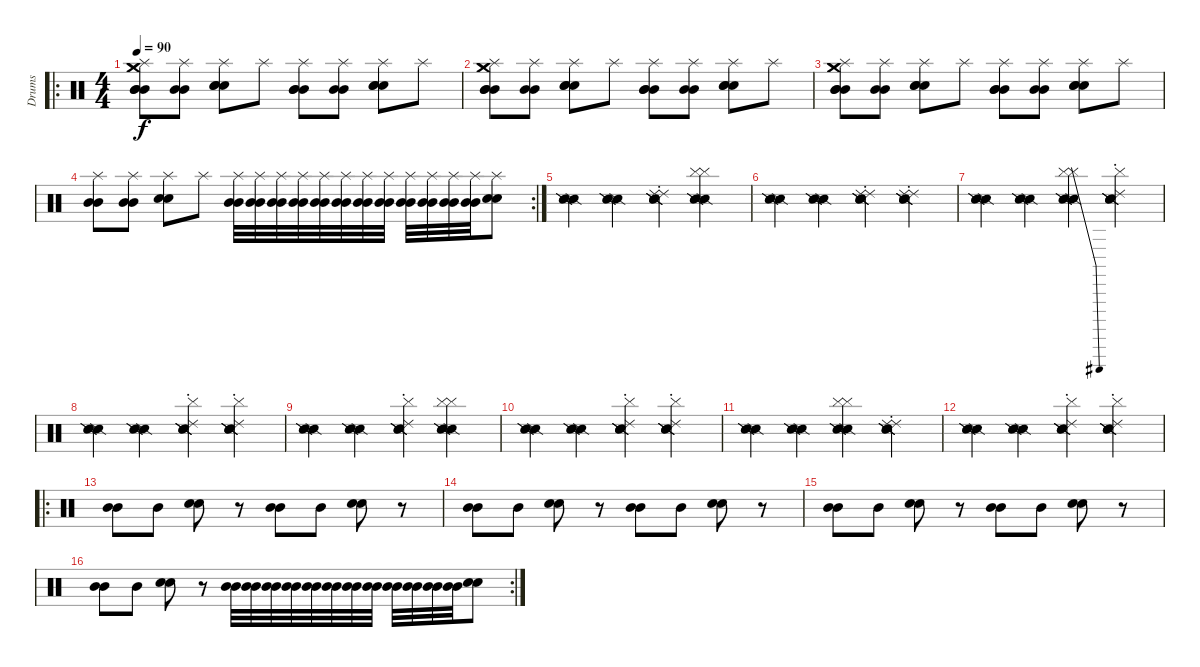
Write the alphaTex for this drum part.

\track ("Drums" "Drums") {instrument percussion}
\staff {score}
\articulation defaults
\ro
\ts (4 4)
\tempo 90
\clef neutral
\ks c
("Mid Tom (hit)" "Mid Tom (hit)" "Mid Tom (hit)" "Crash medium (hit)" "Crash medium (hit)" "Splash (hit)").8{dy f} ("Mid Tom (hit)" "Mid Tom (hit)" "Splash (hit)").8 ("Electric Snare (hit)" "Electric Snare (hit)" "Electric Snare (hit)" "Splash (hit)").8 "Splash (hit)".8 ("Mid Tom (hit)" "Mid Tom (hit)" "Mid Tom (hit)" "Splash (hit)").8 ("Mid Tom (hit)" "Mid Tom (hit)" "Splash (hit)").8 ("Electric Snare (hit)" "Electric Snare (hit)" "Electric Snare (hit)" "Splash (hit)").8 "Splash (hit)".8 |
("Mid Tom (hit)" "Mid Tom (hit)" "Mid Tom (hit)" "Crash medium (hit)" "Crash medium (hit)" "Splash (hit)").8 ("Mid Tom (hit)" "Mid Tom (hit)" "Splash (hit)").8 ("Electric Snare (hit)" "Electric Snare (hit)" "Electric Snare (hit)" "Splash (hit)").8 "Splash (hit)".8 ("Mid Tom (hit)" "Mid Tom (hit)" "Mid Tom (hit)" "Splash (hit)").8 ("Mid Tom (hit)" "Mid Tom (hit)" "Splash (hit)").8 ("Electric Snare (hit)" "Electric Snare (hit)" "Electric Snare (hit)" "Splash (hit)").8 "Splash (hit)".8 |
("Mid Tom (hit)" "Mid Tom (hit)" "Mid Tom (hit)" "Crash medium (hit)" "Crash medium (hit)" "Splash (hit)").8 ("Mid Tom (hit)" "Mid Tom (hit)" "Splash (hit)").8 ("Electric Snare (hit)" "Electric Snare (hit)" "Electric Snare (hit)" "Splash (hit)").8 "Splash (hit)".8 ("Mid Tom (hit)" "Mid Tom (hit)" "Mid Tom (hit)" "Splash (hit)").8 ("Mid Tom (hit)" "Mid Tom (hit)" "Splash (hit)").8 ("Electric Snare (hit)" "Electric Snare (hit)" "Electric Snare (hit)" "Splash (hit)").8 "Splash (hit)".8 |
\rc 2
("Mid Tom (hit)" "Mid Tom (hit)" "Splash (hit)").8 ("Mid Tom (hit)" "Mid Tom (hit)" "Splash (hit)").8 ("Electric Snare (hit)" "Electric Snare (hit)" "Splash (hit)").8 "Splash (hit)".8 ("Mid Tom (hit)" "Mid Tom (hit)" "Splash (hit)").32 ("Mid Tom (hit)" "Mid Tom (hit)" "Splash (hit)").32 ("Mid Tom (hit)" "Mid Tom (hit)" "Splash (hit)").32 ("Mid Tom (hit)" "Mid Tom (hit)" "Splash (hit)").32 ("Mid Tom (hit)" "Mid Tom (hit)" "Splash (hit)").32 ("Mid Tom (hit)" "Mid Tom (hit)" "Splash (hit)").32 ("Mid Tom (hit)" "Mid Tom (hit)" "Splash (hit)").32 ("Mid Tom (hit)" "Mid Tom (hit)" "Splash (hit)").32 ("Mid Tom (hit)" "Mid Tom (hit)" "Splash (hit)").32 ("Mid Tom (hit)" "Mid Tom (hit)" "Splash (hit)").32 ("Mid Tom (hit)" "Mid Tom (hit)" "Splash (hit)").32 ("Mid Tom (hit)" "Mid Tom (hit)" "Splash (hit)").32 ("Electric Snare (hit)" "Electric Snare (hit)" "Splash (hit)").8 |
("Snare (side stick) 2" "Snare (side stick) 2" "Snare (side stick) 2").4 ("Snare (side stick) 2" "Snare (side stick) 2" "Snare (side stick) 2").4 ("Snare (side stick) 2" "Snare (side stick) 2" "Snare (side stick) 2" "Ride (choke) 2" "Ride (choke) 2").4 ("Snare (side stick) 2" "Snare (side stick) 2" "Snare (side stick) 2" "Cymbal (hit)" "Cymbal (hit)").4 |
("Snare (side stick) 2" "Snare (side stick) 2" "Snare (side stick) 2").4 ("Snare (side stick) 2" "Snare (side stick) 2" "Snare (side stick) 2").4 ("Snare (side stick) 2" "Snare (side stick) 2" "Snare (side stick) 2" "Ride (choke) 2" "Ride (choke) 2").4 ("Snare (side stick) 2" "Snare (side stick) 2" "Snare (side stick) 2" "Ride (choke) 2" "Ride (choke) 2").4 |
("Snare (side stick) 2" "Snare (side stick) 2" "Snare (side stick) 2").4 ("Snare (side stick) 2" "Snare (side stick) 2" "Snare (side stick) 2").4 ("Snare (side stick) 2" "Snare (side stick) 2" "Snare (side stick) 2" "Cymbal (hit)" "Cymbal (hit)"{be (bend 0 0 60 4)}).4 ("Snare (side stick) 2" "Snare (side stick) 2" "Snare (side stick) 2" "Cymbal (hit)" "Ride (choke) 2").4 |
("Snare (side stick) 2" "Snare (side stick) 2" "Snare (side stick) 2").4 ("Snare (side stick) 2" "Snare (side stick) 2" "Snare (side stick) 2").4 ("Snare (side stick) 2" "Snare (side stick) 2" "Snare (side stick) 2" "Ride (choke) 2" "Cymbal (hit)").4 ("Snare (side stick) 2" "Snare (side stick) 2" "Snare (side stick) 2" "Cymbal (hit)" "Ride (choke) 2").4 |
("Snare (side stick) 2" "Snare (side stick) 2" "Snare (side stick) 2").4 ("Snare (side stick) 2" "Snare (side stick) 2" "Snare (side stick) 2").4 ("Snare (side stick) 2" "Snare (side stick) 2" "Snare (side stick) 2" "Cymbal (hit)" "Ride (choke) 2").4 ("Snare (side stick) 2" "Snare (side stick) 2" "Snare (side stick) 2" "Cymbal (hit)" "Cymbal (hit)").4 |
("Snare (side stick) 2" "Snare (side stick) 2" "Snare (side stick) 2").4 ("Snare (side stick) 2" "Snare (side stick) 2" "Snare (side stick) 2").4 ("Snare (side stick) 2" "Snare (side stick) 2" "Snare (side stick) 2" "Cymbal (hit)" "Ride (choke) 2").4 ("Snare (side stick) 2" "Snare (side stick) 2" "Snare (side stick) 2" "Cymbal (hit)" "Ride (choke) 2").4 |
("Snare (side stick) 2" "Snare (side stick) 2" "Snare (side stick) 2").4 ("Snare (side stick) 2" "Snare (side stick) 2" "Snare (side stick) 2").4 ("Snare (side stick) 2" "Snare (side stick) 2" "Snare (side stick) 2" "Cymbal (hit)" "Cymbal (hit)").4 ("Snare (side stick) 2" "Snare (side stick) 2" "Snare (side stick) 2" "Ride (choke) 2" "Ride (choke) 2").4 |
("Snare (side stick) 2" "Snare (side stick) 2" "Snare (side stick) 2").4 ("Snare (side stick) 2" "Snare (side stick) 2" "Snare (side stick) 2").4 ("Snare (side stick) 2" "Snare (side stick) 2" "Snare (side stick) 2" "Ride (choke) 2" "Cymbal (hit)").4 ("Snare (side stick) 2" "Snare (side stick) 2" "Snare (side stick) 2" "Cymbal (hit)" "Ride (choke) 2").4 |
\ro
("Mid Tom (hit)" "Mid Tom (hit)").8 "Mid Tom (hit)".8 ("Electric Snare (hit)" "Electric Snare (hit)").8 r.8 ("Mid Tom (hit)" "Mid Tom (hit)").8 "Mid Tom (hit)".8 ("Electric Snare (hit)" "Electric Snare (hit)").8 r.8 |
("Mid Tom (hit)" "Mid Tom (hit)").8 "Mid Tom (hit)".8 ("Electric Snare (hit)" "Electric Snare (hit)").8 r.8 ("Mid Tom (hit)" "Mid Tom (hit)").8 "Mid Tom (hit)".8 ("Electric Snare (hit)" "Electric Snare (hit)").8 r.8 |
("Mid Tom (hit)" "Mid Tom (hit)").8 "Mid Tom (hit)".8 ("Electric Snare (hit)" "Electric Snare (hit)").8 r.8 ("Mid Tom (hit)" "Mid Tom (hit)").8 "Mid Tom (hit)".8 ("Electric Snare (hit)" "Electric Snare (hit)").8 r.8 |
\rc 2
("Mid Tom (hit)" "Mid Tom (hit)").8 "Mid Tom (hit)".8 ("Electric Snare (hit)" "Electric Snare (hit)").8 r.8 ("Mid Tom (hit)" "Mid Tom (hit)").32 ("Mid Tom (hit)" "Mid Tom (hit)").32 ("Mid Tom (hit)" "Mid Tom (hit)").32 ("Mid Tom (hit)" "Mid Tom (hit)").32 ("Mid Tom (hit)" "Mid Tom (hit)").32 ("Mid Tom (hit)" "Mid Tom (hit)").32 ("Mid Tom (hit)" "Mid Tom (hit)").32 ("Mid Tom (hit)" "Mid Tom (hit)").32 ("Mid Tom (hit)" "Mid Tom (hit)").32 ("Mid Tom (hit)" "Mid Tom (hit)").32 ("Mid Tom (hit)" "Mid Tom (hit)").32 ("Mid Tom (hit)" "Mid Tom (hit)").32 ("Electric Snare (hit)" "Electric Snare (hit)").8
